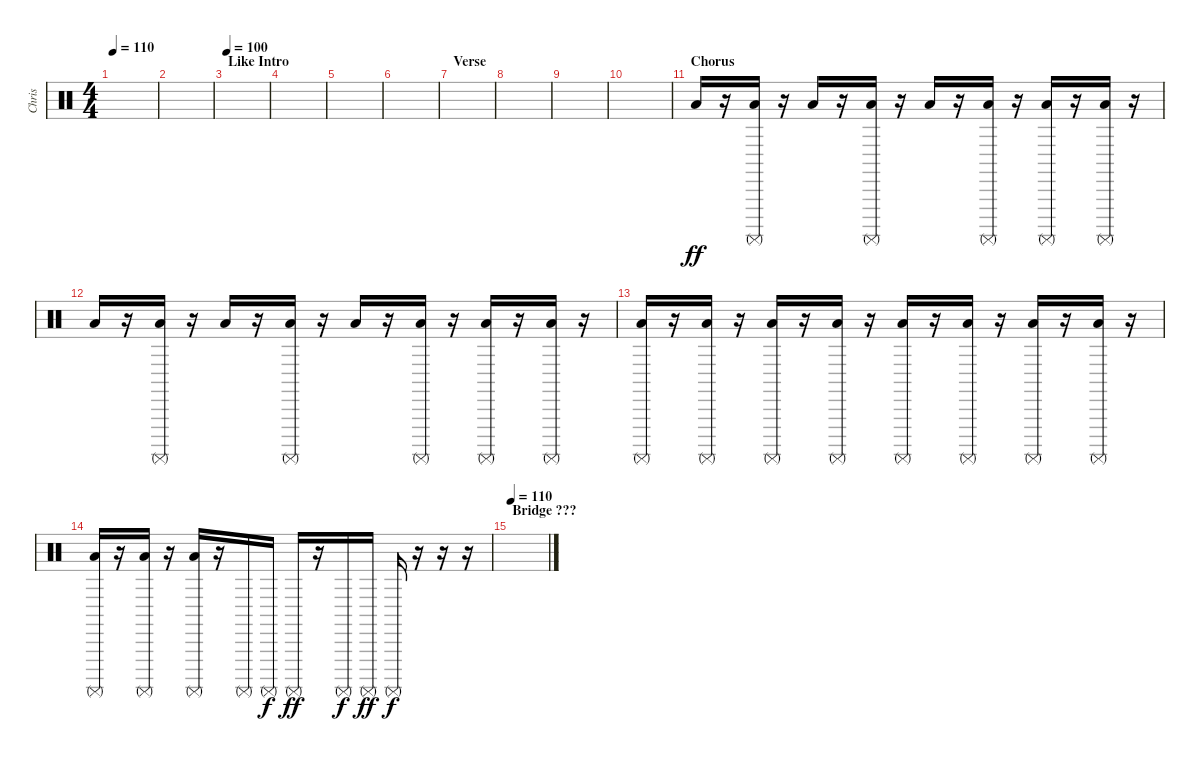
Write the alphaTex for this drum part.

\track ("Chris" "Chris") {instrument percussion}
\staff {score}
\articulation defaults
\ts (4 4)
\tempo 110
\clef neutral
\ks c
|
|
\section ("" "Like Intro")
\tempo 100
|
|
|
|
\section ("" "Verse")
|
|
|
|
\section ("" "Chorus")
"Low Floor Tom (hit)".16{dy ff} r.16 ("Surdo (mute)" "Low Floor Tom (hit)").16 r.16 "Low Floor Tom (hit)".16 r.16 ("Surdo (mute)" "Low Floor Tom (hit)").16 r.16 "Low Floor Tom (hit)".16 r.16 ("Surdo (mute)" "Low Floor Tom (hit)").16 r.16 ("Surdo (mute)" "Low Floor Tom (hit)").16 r.16 ("Surdo (mute)" "Low Floor Tom (hit)").16 r.16 |
"Low Floor Tom (hit)".16 r.16 ("Surdo (mute)" "Low Floor Tom (hit)").16 r.16 "Low Floor Tom (hit)".16 r.16 ("Surdo (mute)" "Low Floor Tom (hit)").16 r.16 "Low Floor Tom (hit)".16 r.16 ("Surdo (mute)" "Low Floor Tom (hit)").16 r.16 ("Surdo (mute)" "Low Floor Tom (hit)").16 r.16 ("Surdo (mute)" "Low Floor Tom (hit)").16 r.16 |
("Surdo (mute)" "Low Floor Tom (hit)").16 r.16 ("Surdo (mute)" "Low Floor Tom (hit)").16 r.16 ("Surdo (mute)" "Low Floor Tom (hit)").16 r.16 ("Surdo (mute)" "Low Floor Tom (hit)").16 r.16 ("Surdo (mute)" "Low Floor Tom (hit)").16 r.16 ("Surdo (mute)" "Low Floor Tom (hit)").16 r.16 ("Surdo (mute)" "Low Floor Tom (hit)").16 r.16 ("Surdo (mute)" "Low Floor Tom (hit)").16 r.16 |
("Surdo (mute)" "Low Floor Tom (hit)").16 r.16 ("Surdo (mute)" "Low Floor Tom (hit)").16 r.16 ("Surdo (mute)" "Low Floor Tom (hit)").16 r.16 "Surdo (mute)".16 "Surdo (mute)".16{dy f} "Surdo (mute)".16{dy ff} r.16 "Surdo (mute)".16{dy f} "Surdo (mute)".16{dy ff} "Surdo (mute)".16{dy f} r.16 r.16 r.16 |
\section ("" "Bridge ???")
\tempo 110
